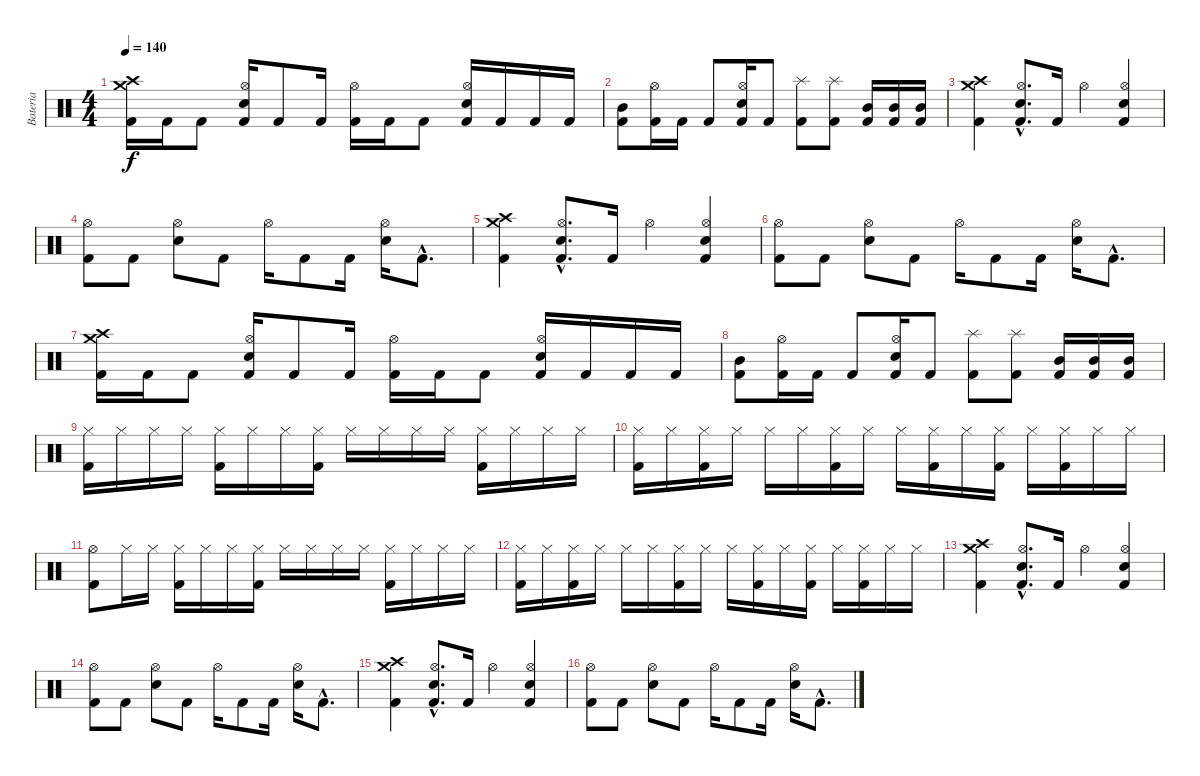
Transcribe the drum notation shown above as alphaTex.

\track ("Bateria" "Bateria") {instrument percussion}
\staff {score}
\articulation defaults
\ts (4 4)
\tempo 140
\clef neutral
\ks c
("Crash medium (hit)" "Crash high (hit)" "Kick (hit) 2").16{dy f} "Kick (hit) 2".16 "Kick (hit) 2".8 ("Hi-Hat (open)" "Snare (hit) 2" "Kick (hit) 2").16 "Kick (hit) 2".8 "Kick (hit) 2".16 ("Hi-Hat (open)" "Kick (hit) 2").16 "Kick (hit) 2".16 "Kick (hit) 2".8 ("Hi-Hat (open)" "Snare (hit) 2" "Kick (hit) 2").16 "Kick (hit) 2".16 "Kick (hit) 2".16 "Kick (hit) 2".16 |
("Mid Tom (hit)" "Kick (hit) 2").8 ("Hi-Hat (open)" "Kick (hit) 2").16 "Kick (hit) 2".16 "Kick (hit) 2".8 ("Hi-Hat (open)" "Snare (hit) 2" "Kick (hit) 2").16 "Kick (hit) 2".8 ("Splash (hit)" "Kick (hit) 2").8 ("Splash (hit)" "Kick (hit) 2").8 ("Mid Tom (hit)" "Kick (hit) 2").16 ("Mid Tom (hit)" "Kick (hit) 2").16 ("Mid Tom (hit)" "Kick (hit) 2").16 |
("Crash high (hit)" "Crash medium (hit)" "Kick (hit) 2").4 ("Hi-Hat (open)"{hac} "Snare (hit) 2"{hac} "Kick (hit) 2"{hac}).8{d} "Kick (hit) 2".16 "Hi-Hat (open)".4 ("Hi-Hat (open)" "Snare (hit) 2" "Kick (hit) 2").4 |
("Hi-Hat (open)" "Kick (hit) 2").8 "Kick (hit) 2".8 ("Hi-Hat (open)" "Snare (hit) 2").8 "Kick (hit) 2".8 "Hi-Hat (open)".16 "Kick (hit) 2".8 "Kick (hit) 2".16 ("Hi-Hat (open)" "Snare (hit) 2").16 "Kick (hit) 2"{hac}.8{d} |
("Crash high (hit)" "Crash medium (hit)" "Kick (hit) 2").4 ("Hi-Hat (open)"{hac} "Snare (hit) 2"{hac} "Kick (hit) 2"{hac}).8{d} "Kick (hit) 2".16 "Hi-Hat (open)".4 ("Hi-Hat (open)" "Snare (hit) 2" "Kick (hit) 2").4 |
("Hi-Hat (open)" "Kick (hit) 2").8 "Kick (hit) 2".8 ("Hi-Hat (open)" "Snare (hit) 2").8 "Kick (hit) 2".8 "Hi-Hat (open)".16 "Kick (hit) 2".8 "Kick (hit) 2".16 ("Hi-Hat (open)" "Snare (hit) 2").16 "Kick (hit) 2"{hac}.8{d} |
("Crash medium (hit)" "Crash high (hit)" "Kick (hit) 2").16 "Kick (hit) 2".16 "Kick (hit) 2".8 ("Hi-Hat (open)" "Snare (hit) 2" "Kick (hit) 2").16 "Kick (hit) 2".8 "Kick (hit) 2".16 ("Hi-Hat (open)" "Kick (hit) 2").16 "Kick (hit) 2".16 "Kick (hit) 2".8 ("Hi-Hat (open)" "Snare (hit) 2" "Kick (hit) 2").16 "Kick (hit) 2".16 "Kick (hit) 2".16 "Kick (hit) 2".16 |
("Mid Tom (hit)" "Kick (hit) 2").8 ("Hi-Hat (open)" "Kick (hit) 2").16 "Kick (hit) 2".16 "Kick (hit) 2".8 ("Hi-Hat (open)" "Snare (hit) 2" "Kick (hit) 2").16 "Kick (hit) 2".8 ("Splash (hit)" "Kick (hit) 2").8 ("Splash (hit)" "Kick (hit) 2").8 ("Mid Tom (hit)" "Kick (hit) 2").16 ("Mid Tom (hit)" "Kick (hit) 2").16 ("Mid Tom (hit)" "Kick (hit) 2").16 |
("Hi-Hat (closed)" "Kick (hit) 2").16 "Hi-Hat (closed)".16 "Hi-Hat (closed)".16 "Hi-Hat (closed)".16 ("Hi-Hat (closed)" "Kick (hit) 2").16 "Hi-Hat (closed)".16 "Hi-Hat (closed)".16 ("Hi-Hat (closed)" "Kick (hit) 2").16 "Hi-Hat (closed)".16 "Hi-Hat (closed)".16 "Hi-Hat (closed)".16 "Hi-Hat (closed)".16 ("Hi-Hat (closed)" "Kick (hit) 2").16 "Hi-Hat (closed)".16 "Hi-Hat (closed)".16 "Hi-Hat (closed)".16 |
("Hi-Hat (closed)" "Kick (hit) 2").16 "Hi-Hat (closed)".16 ("Hi-Hat (closed)" "Kick (hit) 2").16 "Hi-Hat (closed)".16 "Hi-Hat (closed)".16 "Hi-Hat (closed)".16 ("Hi-Hat (closed)" "Kick (hit) 2").16 "Hi-Hat (closed)".16 "Hi-Hat (closed)".16 ("Hi-Hat (closed)" "Kick (hit) 2").16 "Hi-Hat (closed)".16 ("Hi-Hat (closed)" "Kick (hit) 2").16 "Hi-Hat (closed)".16 ("Hi-Hat (closed)" "Kick (hit) 2").16 "Hi-Hat (closed)".16 "Hi-Hat (closed)".16 |
("Hi-Hat (open)" "Kick (hit) 2").8 "Hi-Hat (closed)".16 "Hi-Hat (closed)".16 ("Hi-Hat (closed)" "Kick (hit) 2").16 "Hi-Hat (closed)".16 "Hi-Hat (closed)".16 ("Hi-Hat (closed)" "Kick (hit) 2").16 "Hi-Hat (closed)".16 "Hi-Hat (closed)".16 "Hi-Hat (closed)".16 "Hi-Hat (closed)".16 ("Hi-Hat (closed)" "Kick (hit) 2").16 "Hi-Hat (closed)".16 "Hi-Hat (closed)".16 "Hi-Hat (closed)".16 |
("Hi-Hat (closed)" "Kick (hit) 2").16 "Hi-Hat (closed)".16 ("Hi-Hat (closed)" "Kick (hit) 2").16 "Hi-Hat (closed)".16 "Hi-Hat (closed)".16 "Hi-Hat (closed)".16 ("Hi-Hat (closed)" "Kick (hit) 2").16 "Hi-Hat (closed)".16 "Hi-Hat (closed)".16 ("Hi-Hat (closed)" "Kick (hit) 2").16 "Hi-Hat (closed)".16 ("Hi-Hat (closed)" "Kick (hit) 2").16 "Hi-Hat (closed)".16 ("Hi-Hat (closed)" "Kick (hit) 2").16 "Hi-Hat (closed)".16 "Hi-Hat (closed)".16 |
("Crash high (hit)" "Crash medium (hit)" "Kick (hit) 2").4 ("Hi-Hat (open)"{hac} "Snare (hit) 2"{hac} "Kick (hit) 2"{hac}).8{d} "Kick (hit) 2".16 "Hi-Hat (open)".4 ("Hi-Hat (open)" "Snare (hit) 2" "Kick (hit) 2").4 |
("Hi-Hat (open)" "Kick (hit) 2").8 "Kick (hit) 2".8 ("Hi-Hat (open)" "Snare (hit) 2").8 "Kick (hit) 2".8 "Hi-Hat (open)".16 "Kick (hit) 2".8 "Kick (hit) 2".16 ("Hi-Hat (open)" "Snare (hit) 2").16 "Kick (hit) 2"{hac}.8{d} |
("Crash high (hit)" "Crash medium (hit)" "Kick (hit) 2").4 ("Hi-Hat (open)"{hac} "Snare (hit) 2"{hac} "Kick (hit) 2"{hac}).8{d} "Kick (hit) 2".16 "Hi-Hat (open)".4 ("Hi-Hat (open)" "Snare (hit) 2" "Kick (hit) 2").4 |
("Hi-Hat (open)" "Kick (hit) 2").8 "Kick (hit) 2".8 ("Hi-Hat (open)" "Snare (hit) 2").8 "Kick (hit) 2".8 "Hi-Hat (open)".16 "Kick (hit) 2".8 "Kick (hit) 2".16 ("Hi-Hat (open)" "Snare (hit) 2").16 "Kick (hit) 2"{hac}.8{d}
